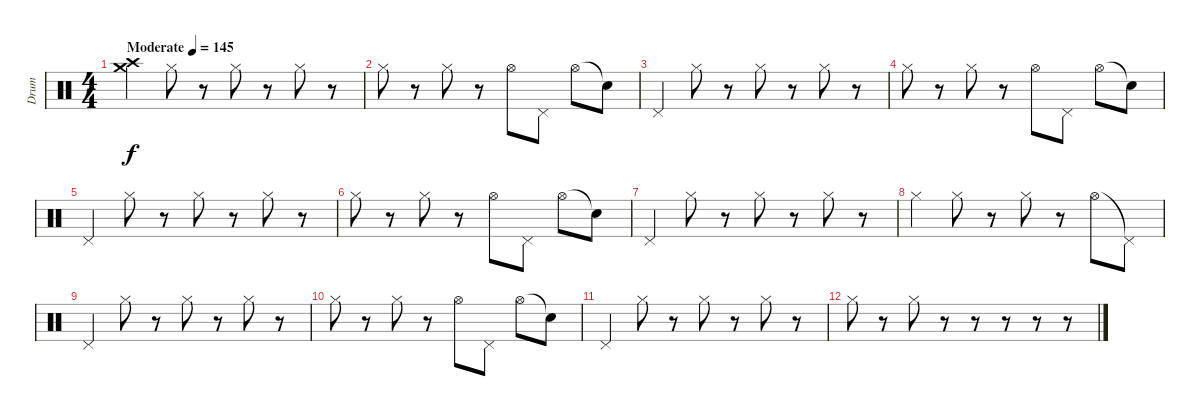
\track ("Drum" "Drum") {instrument percussion}
\staff {score}
\articulation defaults
\ts (4 4)
\tempo (145 "Moderate")
\clef neutral
\ks c
("Crash high (hit)" "Crash medium (hit)").4{dy f} "Hi-Hat (closed)".8 r.8 "Hi-Hat (closed)".8 r.8 "Hi-Hat (closed)".8 r.8 |
"Hi-Hat (closed)".8 r.8 "Hi-Hat (closed)".8 r.8 "Hi-Hat (open)".8 "Pedal Hi-Hat (hit)".8 "Hi-Hat (open)".8 "Snare (hit)"{t}.8 |
"Pedal Hi-Hat (hit)".4 "Hi-Hat (closed)".8 r.8 "Hi-Hat (closed)".8 r.8 "Hi-Hat (closed)".8 r.8 |
"Hi-Hat (closed)".8 r.8 "Hi-Hat (closed)".8 r.8 "Hi-Hat (open)".8 "Pedal Hi-Hat (hit)".8 "Hi-Hat (open)".8 "Snare (hit)"{t}.8 |
"Pedal Hi-Hat (hit)".4 "Hi-Hat (closed)".8 r.8 "Hi-Hat (closed)".8 r.8 "Hi-Hat (closed)".8 r.8 |
"Hi-Hat (closed)".8 r.8 "Hi-Hat (closed)".8 r.8 "Hi-Hat (open)".8 "Pedal Hi-Hat (hit)".8 "Hi-Hat (open)".8 "Snare (hit)"{t}.8 |
"Pedal Hi-Hat (hit)".4 "Hi-Hat (closed)".8 r.8 "Hi-Hat (closed)".8 r.8 "Hi-Hat (closed)".8 r.8 |
"Hi-Hat (closed)".4 "Hi-Hat (closed)".8 r.8 "Hi-Hat (closed)".8 r.8 "Hi-Hat (open)".8 "Pedal Hi-Hat (hit)"{t}.8 |
"Pedal Hi-Hat (hit)".4 "Hi-Hat (closed)".8 r.8 "Hi-Hat (closed)".8 r.8 "Hi-Hat (closed)".8 r.8 |
"Hi-Hat (closed)".8 r.8 "Hi-Hat (closed)".8 r.8 "Hi-Hat (open)".8 "Pedal Hi-Hat (hit)".8 "Hi-Hat (open)".8 "Snare (hit)"{t}.8 |
"Pedal Hi-Hat (hit)".4 "Hi-Hat (closed)".8 r.8 "Hi-Hat (closed)".8 r.8 "Hi-Hat (closed)".8 r.8 |
"Hi-Hat (closed)".8 r.8 "Hi-Hat (closed)".8 r.8 r.8 r.8 r.8 r.8
